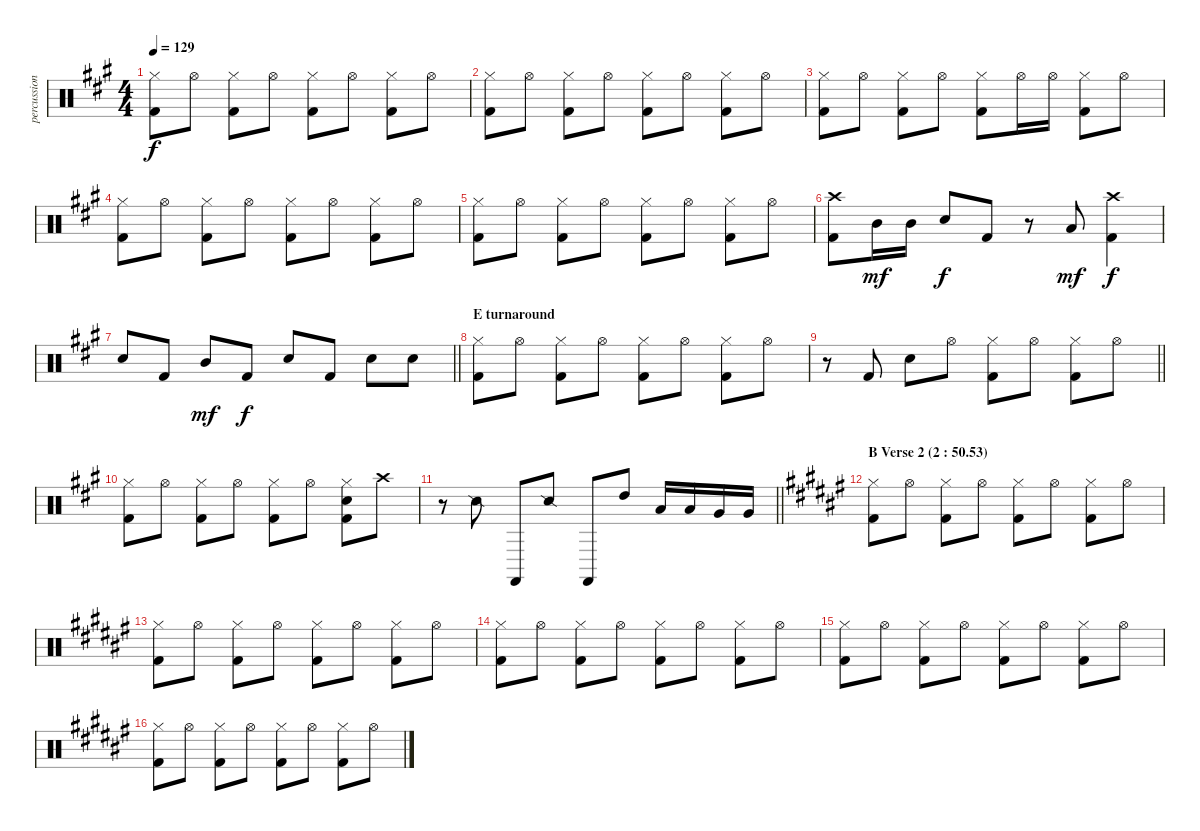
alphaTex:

\track ("percussion" "percussion") {instrument percussion}
\staff {score}
\articulation defaults
\ts (4 4)
\tempo 129
\clef neutral
\ks a
("Hi-Hat (closed)" "Kick (hit) 2").8{dy f} "Hi-Hat (open)".8 ("Hi-Hat (closed)" "Kick (hit) 2").8 "Hi-Hat (open)".8 ("Hi-Hat (closed)" "Kick (hit) 2").8 "Hi-Hat (open)".8 ("Hi-Hat (closed)" "Kick (hit) 2").8 "Hi-Hat (open)".8 |
("Hi-Hat (closed)" "Kick (hit) 2").8 "Hi-Hat (open)".8 ("Hi-Hat (closed)" "Kick (hit) 2").8 "Hi-Hat (open)".8 ("Hi-Hat (closed)" "Kick (hit) 2").8 "Hi-Hat (open)".8 ("Hi-Hat (closed)" "Kick (hit) 2").8 "Hi-Hat (open)".8 |
("Hi-Hat (closed)" "Kick (hit) 2").8 "Hi-Hat (open)".8 ("Hi-Hat (closed)" "Kick (hit) 2").8 "Hi-Hat (open)".8 ("Hi-Hat (closed)" "Kick (hit) 2").8 "Hi-Hat (open)".16 "Hi-Hat (open)".16 ("Hi-Hat (closed)" "Kick (hit) 2").8 "Hi-Hat (open)".8 |
("Hi-Hat (closed)" "Kick (hit) 2").8 "Hi-Hat (open)".8 ("Hi-Hat (closed)" "Kick (hit) 2").8 "Hi-Hat (open)".8 ("Hi-Hat (closed)" "Kick (hit) 2").8 "Hi-Hat (open)".8 ("Hi-Hat (closed)" "Kick (hit) 2").8 "Hi-Hat (open)".8 |
("Hi-Hat (closed)" "Kick (hit) 2").8 "Hi-Hat (open)".8 ("Hi-Hat (closed)" "Kick (hit) 2").8 "Hi-Hat (open)".8 ("Hi-Hat (closed)" "Kick (hit) 2").8 "Hi-Hat (open)".8 ("Hi-Hat (closed)" "Kick (hit) 2").8 "Hi-Hat (open)".8 |
("Crash high (hit)" "Kick (hit) 2").8 "Mid Tom (hit)".16{dy mf} "Mid Tom (hit)".16 "Snare (hit) 2".8{dy f} "Kick (hit) 2".8 r.8 "Low Tom (hit)".8{dy mf} ("Crash high (hit)" "Kick (hit) 2").4{dy f} |
\barLineRight lightlight "Snare (hit) 2".8 "Kick (hit) 2".8 "Mid Tom (hit)".8{dy mf} "Kick (hit) 2".8{dy f} "Snare (hit) 2".8 "Kick (hit) 2".8 "Snare (hit) 2".8 "Snare (hit) 2".8
|
\section ("" "E turnaround")
("Hi-Hat (closed)" "Kick (hit) 2").8 "Hi-Hat (open)".8 ("Hi-Hat (closed)" "Kick (hit) 2").8 "Hi-Hat (open)".8 ("Hi-Hat (closed)" "Kick (hit) 2").8 "Hi-Hat (open)".8 ("Hi-Hat (closed)" "Kick (hit) 2").8 "Hi-Hat (open)".8 |
\barLineRight lightlight
r.8 "Kick (hit) 2".8 "Snare (hit) 2".8 "Hi-Hat (open)".8 ("Hi-Hat (closed)" "Kick (hit) 2").8 "Hi-Hat (open)".8 ("Hi-Hat (closed)" "Kick (hit) 2").8 "Hi-Hat (open)".8 |
("Hi-Hat (closed)" "Kick (hit) 2").8 "Hi-Hat (open)".8 ("Hi-Hat (closed)" "Kick (hit) 2").8 "Hi-Hat (open)".8 ("Hi-Hat (closed)" "Kick (hit) 2").8 "Hi-Hat (open)".8 ("Snare (hit) 2" "Hi-Hat (closed)" "Kick (hit) 2").8 "Crash high (hit)".8 |
\barLineRight lightlight
r.8 "Snare (side stick) 2".8 "Castanets (hit)".8 "Snare (side stick) 2".8 "Castanets (hit)".8 "High Tom (hit)".8 "Low Tom (hit)".16 "Low Tom (hit)".16 "Very Low Tom (hit)".16 "Very Low Tom (hit)".16 |
\section ("" "B Verse 2 (2 : 50.53)")
\ks f#
("Hi-Hat (closed)" "Kick (hit) 2").8 "Hi-Hat (open)".8 ("Hi-Hat (closed)" "Kick (hit) 2").8 "Hi-Hat (open)".8 ("Hi-Hat (closed)" "Kick (hit) 2").8 "Hi-Hat (open)".8 ("Hi-Hat (closed)" "Kick (hit) 2").8 "Hi-Hat (open)".8 |
("Hi-Hat (closed)" "Kick (hit) 2").8 "Hi-Hat (open)".8 ("Hi-Hat (closed)" "Kick (hit) 2").8 "Hi-Hat (open)".8 ("Hi-Hat (closed)" "Kick (hit) 2").8 "Hi-Hat (open)".8 ("Hi-Hat (closed)" "Kick (hit) 2").8 "Hi-Hat (open)".8 |
("Hi-Hat (closed)" "Kick (hit) 2").8 "Hi-Hat (open)".8 ("Hi-Hat (closed)" "Kick (hit) 2").8 "Hi-Hat (open)".8 ("Hi-Hat (closed)" "Kick (hit) 2").8 "Hi-Hat (open)".8 ("Hi-Hat (closed)" "Kick (hit) 2").8 "Hi-Hat (open)".8 |
("Hi-Hat (closed)" "Kick (hit) 2").8 "Hi-Hat (open)".8 ("Hi-Hat (closed)" "Kick (hit) 2").8 "Hi-Hat (open)".8 ("Hi-Hat (closed)" "Kick (hit) 2").8 "Hi-Hat (open)".8 ("Hi-Hat (closed)" "Kick (hit) 2").8 "Hi-Hat (open)".8 |
("Hi-Hat (closed)" "Kick (hit) 2").8 "Hi-Hat (open)".8 ("Hi-Hat (closed)" "Kick (hit) 2").8 "Hi-Hat (open)".8 ("Hi-Hat (closed)" "Kick (hit) 2").8 "Hi-Hat (open)".8 ("Hi-Hat (closed)" "Kick (hit) 2").8 "Hi-Hat (open)".8
